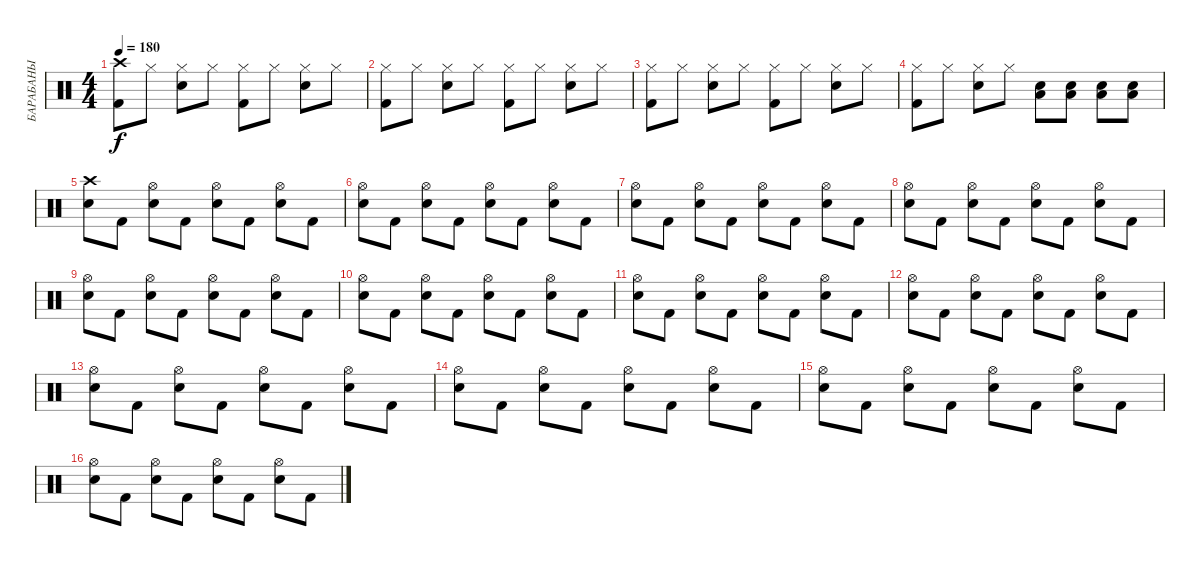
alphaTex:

\track ("БАРАБАНЫ" "БАРАБАНЫ") {instrument percussion}
\staff {score}
\articulation defaults
\ts (4 4)
\tempo 180
\clef neutral
\ks c
("Crash high (hit)" "Kick (hit) 2").8{dy f} "Hi-Hat (closed)".8 ("Hi-Hat (closed)" "Electric Snare (hit)").8 "Hi-Hat (closed)".8 ("Hi-Hat (closed)" "Kick (hit) 2").8 "Hi-Hat (closed)".8 ("Hi-Hat (closed)" "Electric Snare (hit)").8 "Hi-Hat (closed)".8 |
("Hi-Hat (closed)" "Kick (hit) 2").8 "Hi-Hat (closed)".8 ("Hi-Hat (closed)" "Electric Snare (hit)").8 "Hi-Hat (closed)".8 ("Hi-Hat (closed)" "Kick (hit) 2").8 "Hi-Hat (closed)".8 ("Hi-Hat (closed)" "Electric Snare (hit)").8 "Hi-Hat (closed)".8 |
("Hi-Hat (closed)" "Kick (hit) 2").8 "Hi-Hat (closed)".8 ("Hi-Hat (closed)" "Electric Snare (hit)").8 "Hi-Hat (closed)".8 ("Hi-Hat (closed)" "Kick (hit) 2").8 "Hi-Hat (closed)".8 ("Hi-Hat (closed)" "Electric Snare (hit)").8 "Hi-Hat (closed)".8 |
("Hi-Hat (closed)" "Kick (hit) 2").8 "Hi-Hat (closed)".8 ("Hi-Hat (closed)" "Electric Snare (hit)").8 "Hi-Hat (closed)".8 ("Low Floor Tom (hit)" "Electric Snare (hit)").8 ("Low Floor Tom (hit)" "Electric Snare (hit)").8 ("Low Floor Tom (hit)" "Electric Snare (hit)").8 ("Low Floor Tom (hit)" "Electric Snare (hit)").8 |
("Crash high (hit)" "Electric Snare (hit)").8 "Kick (hit) 2".8 ("Hi-Hat (open)" "Electric Snare (hit)").8 "Kick (hit) 2".8 ("Hi-Hat (open)" "Electric Snare (hit)").8 "Kick (hit) 2".8 ("Hi-Hat (open)" "Electric Snare (hit)").8 "Kick (hit) 2".8 |
("Hi-Hat (open)" "Electric Snare (hit)").8 "Kick (hit) 2".8 ("Hi-Hat (open)" "Electric Snare (hit)").8 "Kick (hit) 2".8 ("Hi-Hat (open)" "Electric Snare (hit)").8 "Kick (hit) 2".8 ("Hi-Hat (open)" "Electric Snare (hit)").8 "Kick (hit) 2".8 |
("Hi-Hat (open)" "Electric Snare (hit)").8 "Kick (hit) 2".8 ("Hi-Hat (open)" "Electric Snare (hit)").8 "Kick (hit) 2".8 ("Hi-Hat (open)" "Electric Snare (hit)").8 "Kick (hit) 2".8 ("Hi-Hat (open)" "Electric Snare (hit)").8 "Kick (hit) 2".8 |
("Hi-Hat (open)" "Electric Snare (hit)").8 "Kick (hit) 2".8 ("Hi-Hat (open)" "Electric Snare (hit)").8 "Kick (hit) 2".8 ("Hi-Hat (open)" "Electric Snare (hit)").8 "Kick (hit) 2".8 ("Hi-Hat (open)" "Electric Snare (hit)").8 "Kick (hit) 2".8 |
("Hi-Hat (open)" "Electric Snare (hit)").8 "Kick (hit) 2".8 ("Hi-Hat (open)" "Electric Snare (hit)").8 "Kick (hit) 2".8 ("Hi-Hat (open)" "Electric Snare (hit)").8 "Kick (hit) 2".8 ("Hi-Hat (open)" "Electric Snare (hit)").8 "Kick (hit) 2".8 |
("Hi-Hat (open)" "Electric Snare (hit)").8 "Kick (hit) 2".8 ("Hi-Hat (open)" "Electric Snare (hit)").8 "Kick (hit) 2".8 ("Hi-Hat (open)" "Electric Snare (hit)").8 "Kick (hit) 2".8 ("Hi-Hat (open)" "Electric Snare (hit)").8 "Kick (hit) 2".8 |
("Hi-Hat (open)" "Electric Snare (hit)").8 "Kick (hit) 2".8 ("Hi-Hat (open)" "Electric Snare (hit)").8 "Kick (hit) 2".8 ("Hi-Hat (open)" "Electric Snare (hit)").8 "Kick (hit) 2".8 ("Hi-Hat (open)" "Electric Snare (hit)").8 "Kick (hit) 2".8 |
("Hi-Hat (open)" "Electric Snare (hit)").8 "Kick (hit) 2".8 ("Hi-Hat (open)" "Electric Snare (hit)").8 "Kick (hit) 2".8 ("Hi-Hat (open)" "Electric Snare (hit)").8 "Kick (hit) 2".8 ("Hi-Hat (open)" "Electric Snare (hit)").8 "Kick (hit) 2".8 |
("Hi-Hat (open)" "Electric Snare (hit)").8 "Kick (hit) 2".8 ("Hi-Hat (open)" "Electric Snare (hit)").8 "Kick (hit) 2".8 ("Hi-Hat (open)" "Electric Snare (hit)").8 "Kick (hit) 2".8 ("Hi-Hat (open)" "Electric Snare (hit)").8 "Kick (hit) 2".8 |
("Hi-Hat (open)" "Electric Snare (hit)").8 "Kick (hit) 2".8 ("Hi-Hat (open)" "Electric Snare (hit)").8 "Kick (hit) 2".8 ("Hi-Hat (open)" "Electric Snare (hit)").8 "Kick (hit) 2".8 ("Hi-Hat (open)" "Electric Snare (hit)").8 "Kick (hit) 2".8 |
("Hi-Hat (open)" "Electric Snare (hit)").8 "Kick (hit) 2".8 ("Hi-Hat (open)" "Electric Snare (hit)").8 "Kick (hit) 2".8 ("Hi-Hat (open)" "Electric Snare (hit)").8 "Kick (hit) 2".8 ("Hi-Hat (open)" "Electric Snare (hit)").8 "Kick (hit) 2".8 |
("Hi-Hat (open)" "Electric Snare (hit)").8 "Kick (hit) 2".8 ("Hi-Hat (open)" "Electric Snare (hit)").8 "Kick (hit) 2".8 ("Hi-Hat (open)" "Electric Snare (hit)").8 "Kick (hit) 2".8 ("Hi-Hat (open)" "Electric Snare (hit)").8 "Kick (hit) 2".8
